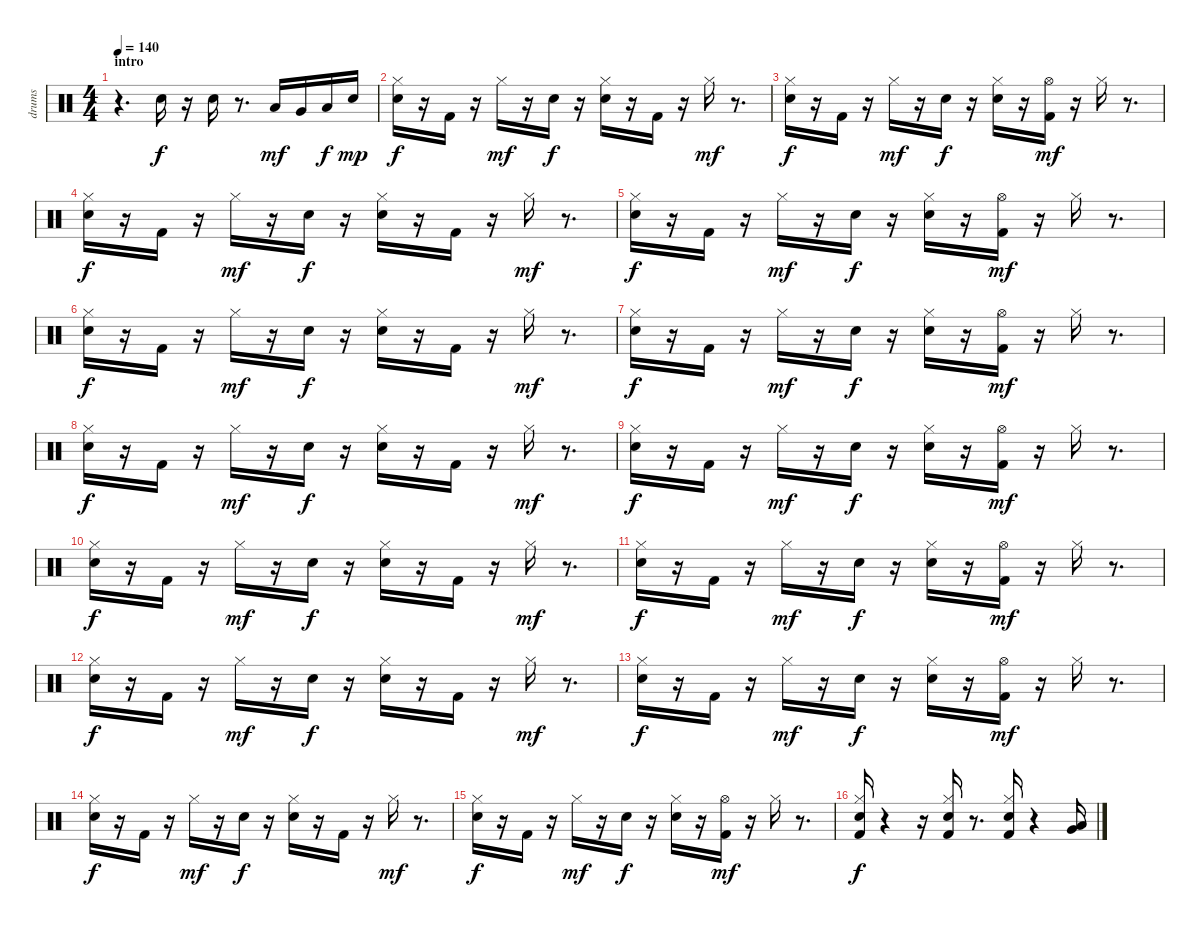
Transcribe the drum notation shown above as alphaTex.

\track ("drums" "drums") {instrument percussion}
\staff {score}
\articulation defaults
\ts (4 4)
\section ("" "intro")
\tempo 140
\clef neutral
\ks c
r.4{d dy f} "Snare (hit) 2".16 r.16 "Snare (hit) 2".16 r.8{d} "Low Tom (hit)".16{dy mf} "Very Low Tom (hit)".16 "Low Floor Tom (hit)".16{dy f} "Electric Snare (hit)".16{dy mp} |
("Snare (hit) 2" "Hi-Hat (closed)").16{dy f} r.16 "Kick (hit) 2".16 r.16 "Hi-Hat (closed)".16{dy mf} r.16 "Snare (hit) 2".16{dy f} r.16 ("Snare (hit) 2" "Hi-Hat (closed)").16 r.16 "Kick (hit) 2".16 r.16 "Hi-Hat (closed)".16{dy mf} r.8{d} |
("Snare (hit) 2" "Hi-Hat (closed)").16{dy f} r.16 "Kick (hit) 2".16 r.16 "Hi-Hat (closed)".16{dy mf} r.16 "Snare (hit) 2".16{dy f} r.16 ("Snare (hit) 2" "Hi-Hat (closed)").16 r.16 ("Kick (hit) 2" "Hi-Hat (open)").16{dy mf} r.16 "Hi-Hat (closed)".16 r.8{d} |
("Snare (hit) 2" "Hi-Hat (closed)").16{dy f} r.16 "Kick (hit) 2".16 r.16 "Hi-Hat (closed)".16{dy mf} r.16 "Snare (hit) 2".16{dy f} r.16 ("Snare (hit) 2" "Hi-Hat (closed)").16 r.16 "Kick (hit) 2".16 r.16 "Hi-Hat (closed)".16{dy mf} r.8{d} |
("Snare (hit) 2" "Hi-Hat (closed)").16{dy f} r.16 "Kick (hit) 2".16 r.16 "Hi-Hat (closed)".16{dy mf} r.16 "Snare (hit) 2".16{dy f} r.16 ("Snare (hit) 2" "Hi-Hat (closed)").16 r.16 ("Kick (hit) 2" "Hi-Hat (open)").16{dy mf} r.16 "Hi-Hat (closed)".16 r.8{d} |
("Snare (hit) 2" "Hi-Hat (closed)").16{dy f} r.16 "Kick (hit) 2".16 r.16 "Hi-Hat (closed)".16{dy mf} r.16 "Snare (hit) 2".16{dy f} r.16 ("Snare (hit) 2" "Hi-Hat (closed)").16 r.16 "Kick (hit) 2".16 r.16 "Hi-Hat (closed)".16{dy mf} r.8{d} |
("Snare (hit) 2" "Hi-Hat (closed)").16{dy f} r.16 "Kick (hit) 2".16 r.16 "Hi-Hat (closed)".16{dy mf} r.16 "Snare (hit) 2".16{dy f} r.16 ("Snare (hit) 2" "Hi-Hat (closed)").16 r.16 ("Kick (hit) 2" "Hi-Hat (open)").16{dy mf} r.16 "Hi-Hat (closed)".16 r.8{d} |
("Snare (hit) 2" "Hi-Hat (closed)").16{dy f} r.16 "Kick (hit) 2".16 r.16 "Hi-Hat (closed)".16{dy mf} r.16 "Snare (hit) 2".16{dy f} r.16 ("Snare (hit) 2" "Hi-Hat (closed)").16 r.16 "Kick (hit) 2".16 r.16 "Hi-Hat (closed)".16{dy mf} r.8{d} |
("Snare (hit) 2" "Hi-Hat (closed)").16{dy f} r.16 "Kick (hit) 2".16 r.16 "Hi-Hat (closed)".16{dy mf} r.16 "Snare (hit) 2".16{dy f} r.16 ("Snare (hit) 2" "Hi-Hat (closed)").16 r.16 ("Kick (hit) 2" "Hi-Hat (open)").16{dy mf} r.16 "Hi-Hat (closed)".16 r.8{d} |
("Snare (hit) 2" "Hi-Hat (closed)").16{dy f} r.16 "Kick (hit) 2".16 r.16 "Hi-Hat (closed)".16{dy mf} r.16 "Snare (hit) 2".16{dy f} r.16 ("Snare (hit) 2" "Hi-Hat (closed)").16 r.16 "Kick (hit) 2".16 r.16 "Hi-Hat (closed)".16{dy mf} r.8{d} |
("Snare (hit) 2" "Hi-Hat (closed)").16{dy f} r.16 "Kick (hit) 2".16 r.16 "Hi-Hat (closed)".16{dy mf} r.16 "Snare (hit) 2".16{dy f} r.16 ("Snare (hit) 2" "Hi-Hat (closed)").16 r.16 ("Kick (hit) 2" "Hi-Hat (open)").16{dy mf} r.16 "Hi-Hat (closed)".16 r.8{d} |
("Snare (hit) 2" "Hi-Hat (closed)").16{dy f} r.16 "Kick (hit) 2".16 r.16 "Hi-Hat (closed)".16{dy mf} r.16 "Snare (hit) 2".16{dy f} r.16 ("Snare (hit) 2" "Hi-Hat (closed)").16 r.16 "Kick (hit) 2".16 r.16 "Hi-Hat (closed)".16{dy mf} r.8{d} |
("Snare (hit) 2" "Hi-Hat (closed)").16{dy f} r.16 "Kick (hit) 2".16 r.16 "Hi-Hat (closed)".16{dy mf} r.16 "Snare (hit) 2".16{dy f} r.16 ("Snare (hit) 2" "Hi-Hat (closed)").16 r.16 ("Kick (hit) 2" "Hi-Hat (open)").16{dy mf} r.16 "Hi-Hat (closed)".16 r.8{d} |
("Snare (hit) 2" "Hi-Hat (closed)").16{dy f} r.16 "Kick (hit) 2".16 r.16 "Hi-Hat (closed)".16{dy mf} r.16 "Snare (hit) 2".16{dy f} r.16 ("Snare (hit) 2" "Hi-Hat (closed)").16 r.16 "Kick (hit) 2".16 r.16 "Hi-Hat (closed)".16{dy mf} r.8{d} |
("Snare (hit) 2" "Hi-Hat (closed)").16{dy f} r.16 "Kick (hit) 2".16 r.16 "Hi-Hat (closed)".16{dy mf} r.16 "Snare (hit) 2".16{dy f} r.16 ("Snare (hit) 2" "Hi-Hat (closed)").16 r.16 ("Kick (hit) 2" "Hi-Hat (open)").16{dy mf} r.16 "Hi-Hat (closed)".16 r.8{d} |
("Kick (hit) 2" "Snare (hit) 2" "Hi-Hat (closed)").16{dy f} r.4 r.16 ("Kick (hit) 2" "Snare (hit) 2" "Hi-Hat (closed)").16 r.8{d} ("Kick (hit) 2" "Snare (hit) 2" "Hi-Hat (closed)").16 r.4 ("Low Tom (hit)" "Very Low Tom (hit)").16
